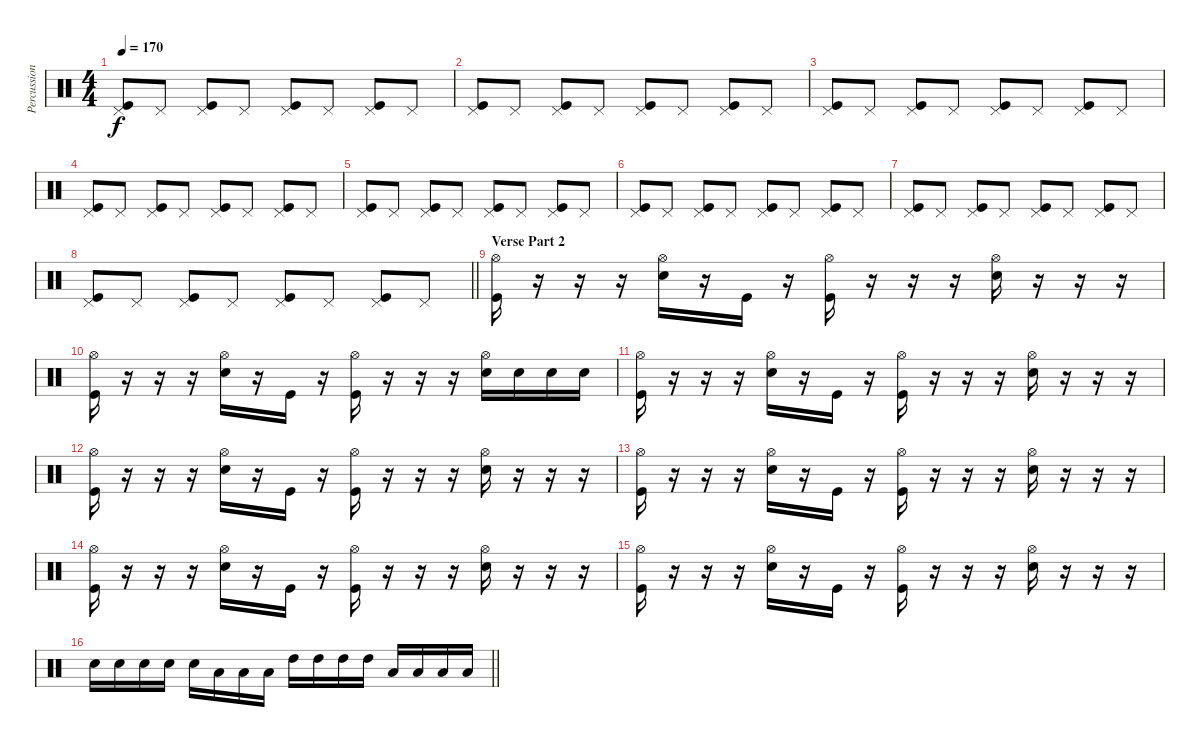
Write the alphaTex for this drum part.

\track ("Percussion" "Percussion") {instrument percussion}
\staff {score}
\articulation defaults
\ts (4 4)
\tempo 170
\clef neutral
\ks c
("Pedal Hi-Hat (hit)" "Kick (hit)").8{dy f} "Pedal Hi-Hat (hit)".8 ("Pedal Hi-Hat (hit)" "Kick (hit)").8 "Pedal Hi-Hat (hit)".8 ("Pedal Hi-Hat (hit)" "Kick (hit)").8 "Pedal Hi-Hat (hit)".8 ("Pedal Hi-Hat (hit)" "Kick (hit)").8 "Pedal Hi-Hat (hit)".8 |
("Pedal Hi-Hat (hit)" "Kick (hit)").8 "Pedal Hi-Hat (hit)".8 ("Pedal Hi-Hat (hit)" "Kick (hit)").8 "Pedal Hi-Hat (hit)".8 ("Pedal Hi-Hat (hit)" "Kick (hit)").8 "Pedal Hi-Hat (hit)".8 ("Pedal Hi-Hat (hit)" "Kick (hit)").8 "Pedal Hi-Hat (hit)".8 |
("Pedal Hi-Hat (hit)" "Kick (hit)").8 "Pedal Hi-Hat (hit)".8 ("Pedal Hi-Hat (hit)" "Kick (hit)").8 "Pedal Hi-Hat (hit)".8 ("Pedal Hi-Hat (hit)" "Kick (hit)").8 "Pedal Hi-Hat (hit)".8 ("Pedal Hi-Hat (hit)" "Kick (hit)").8 "Pedal Hi-Hat (hit)".8 |
("Pedal Hi-Hat (hit)" "Kick (hit)").8 "Pedal Hi-Hat (hit)".8 ("Pedal Hi-Hat (hit)" "Kick (hit)").8 "Pedal Hi-Hat (hit)".8 ("Pedal Hi-Hat (hit)" "Kick (hit)").8 "Pedal Hi-Hat (hit)".8 ("Pedal Hi-Hat (hit)" "Kick (hit)").8 "Pedal Hi-Hat (hit)".8 |
("Pedal Hi-Hat (hit)" "Kick (hit)").8 "Pedal Hi-Hat (hit)".8 ("Pedal Hi-Hat (hit)" "Kick (hit)").8 "Pedal Hi-Hat (hit)".8 ("Pedal Hi-Hat (hit)" "Kick (hit)").8 "Pedal Hi-Hat (hit)".8 ("Pedal Hi-Hat (hit)" "Kick (hit)").8 "Pedal Hi-Hat (hit)".8 |
("Pedal Hi-Hat (hit)" "Kick (hit)").8 "Pedal Hi-Hat (hit)".8 ("Pedal Hi-Hat (hit)" "Kick (hit)").8 "Pedal Hi-Hat (hit)".8 ("Pedal Hi-Hat (hit)" "Kick (hit)").8 "Pedal Hi-Hat (hit)".8 ("Pedal Hi-Hat (hit)" "Kick (hit)").8 "Pedal Hi-Hat (hit)".8 |
("Pedal Hi-Hat (hit)" "Kick (hit)").8 "Pedal Hi-Hat (hit)".8 ("Pedal Hi-Hat (hit)" "Kick (hit)").8 "Pedal Hi-Hat (hit)".8 ("Pedal Hi-Hat (hit)" "Kick (hit)").8 "Pedal Hi-Hat (hit)".8 ("Pedal Hi-Hat (hit)" "Kick (hit)").8 "Pedal Hi-Hat (hit)".8 |
\barLineRight lightlight
("Pedal Hi-Hat (hit)" "Kick (hit)").8 "Pedal Hi-Hat (hit)".8 ("Pedal Hi-Hat (hit)" "Kick (hit)").8 "Pedal Hi-Hat (hit)".8 ("Pedal Hi-Hat (hit)" "Kick (hit)").8 "Pedal Hi-Hat (hit)".8 ("Pedal Hi-Hat (hit)" "Kick (hit)").8 "Pedal Hi-Hat (hit)".8 |
\section ("" "Verse Part 2")
("Hi-Hat (open)" "Kick (hit)").16 r.16 r.16 r.16 ("Hi-Hat (open)" "Snare (hit) 2").16 r.16 "Kick (hit)".16 r.16 ("Hi-Hat (open)" "Kick (hit)").16 r.16 r.16 r.16 ("Hi-Hat (open)" "Snare (hit) 2").16 r.16 r.16 r.16 |
("Hi-Hat (open)" "Kick (hit)").16 r.16 r.16 r.16 ("Hi-Hat (open)" "Snare (hit) 2").16 r.16 "Kick (hit)".16 r.16 ("Hi-Hat (open)" "Kick (hit)").16 r.16 r.16 r.16 ("Hi-Hat (open)" "Snare (hit) 2").16 "Snare (hit) 2".16 "Snare (hit) 2".16 "Snare (hit) 2".16 |
("Hi-Hat (open)" "Kick (hit)").16 r.16 r.16 r.16 ("Hi-Hat (open)" "Snare (hit) 2").16 r.16 "Kick (hit)".16 r.16 ("Hi-Hat (open)" "Kick (hit)").16 r.16 r.16 r.16 ("Hi-Hat (open)" "Snare (hit) 2").16 r.16 r.16 r.16 |
("Hi-Hat (open)" "Kick (hit)").16 r.16 r.16 r.16 ("Hi-Hat (open)" "Snare (hit) 2").16 r.16 "Kick (hit)".16 r.16 ("Hi-Hat (open)" "Kick (hit)").16 r.16 r.16 r.16 ("Hi-Hat (open)" "Snare (hit) 2").16 r.16 r.16 r.16 |
("Hi-Hat (open)" "Kick (hit)").16 r.16 r.16 r.16 ("Hi-Hat (open)" "Snare (hit) 2").16 r.16 "Kick (hit)".16 r.16 ("Hi-Hat (open)" "Kick (hit)").16 r.16 r.16 r.16 ("Hi-Hat (open)" "Snare (hit) 2").16 r.16 r.16 r.16 |
("Hi-Hat (open)" "Kick (hit)").16 r.16 r.16 r.16 ("Hi-Hat (open)" "Snare (hit) 2").16 r.16 "Kick (hit)".16 r.16 ("Hi-Hat (open)" "Kick (hit)").16 r.16 r.16 r.16 ("Hi-Hat (open)" "Snare (hit) 2").16 r.16 r.16 r.16 |
("Hi-Hat (open)" "Kick (hit)").16 r.16 r.16 r.16 ("Hi-Hat (open)" "Snare (hit) 2").16 r.16 "Kick (hit)".16 r.16 ("Hi-Hat (open)" "Kick (hit)").16 r.16 r.16 r.16 ("Hi-Hat (open)" "Snare (hit) 2").16 r.16 r.16 r.16 |
\barLineRight lightlight "Snare (hit) 2".16 "Snare (hit) 2".16 "Snare (hit) 2".16 "Snare (hit) 2".16 "Snare (hit) 2".16 "Low Tom (hit)".16 "Low Tom (hit)".16 "Low Tom (hit)".16 "High Tom (hit)".16 "High Tom (hit)".16 "High Tom (hit)".16 "High Tom (hit)".16 "Low Floor Tom (hit)".16 "Low Floor Tom (hit)".16 "Low Floor Tom (hit)".16 "Low Floor Tom (hit)".16
